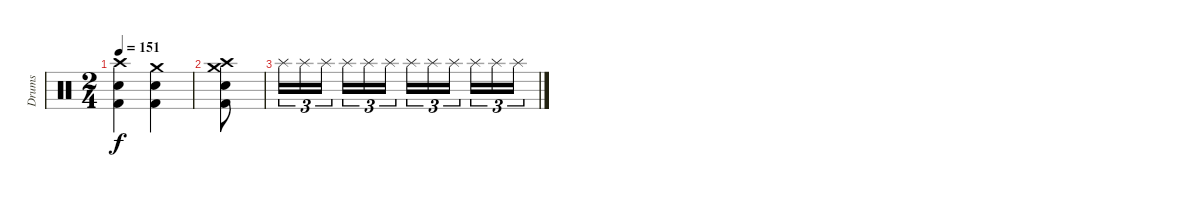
\track ("Drums" "Drums") {instrument percussion}
\staff {score}
\articulation defaults
\ts (2 4)
\tempo 151
\clef neutral
\ks c
("Kick (hit) 2" "Snare (hit) 2" "Crash high (hit)").4{dy f} ("Kick (hit) 2" "Snare (hit) 2" "Crash medium (hit)").4 |
("Snare (hit) 2" "Kick (hit) 2" "Crash high (hit)" "Crash medium (hit)").8 |
"Splash (hit)".16{tu (3 2)} "Splash (hit)".16{tu (3 2)} "Splash (hit)".16{tu (3 2) beam splitsecondary} "Splash (hit)".16{tu (3 2)} "Splash (hit)".16{tu (3 2)} "Splash (hit)".16{tu (3 2)} "Splash (hit)".16{tu (3 2)} "Splash (hit)".16{tu (3 2)} "Splash (hit)".16{tu (3 2) beam splitsecondary} "Splash (hit)".16{tu (3 2)} "Splash (hit)".16{tu (3 2)} "Splash (hit)".16{tu (3 2)}
